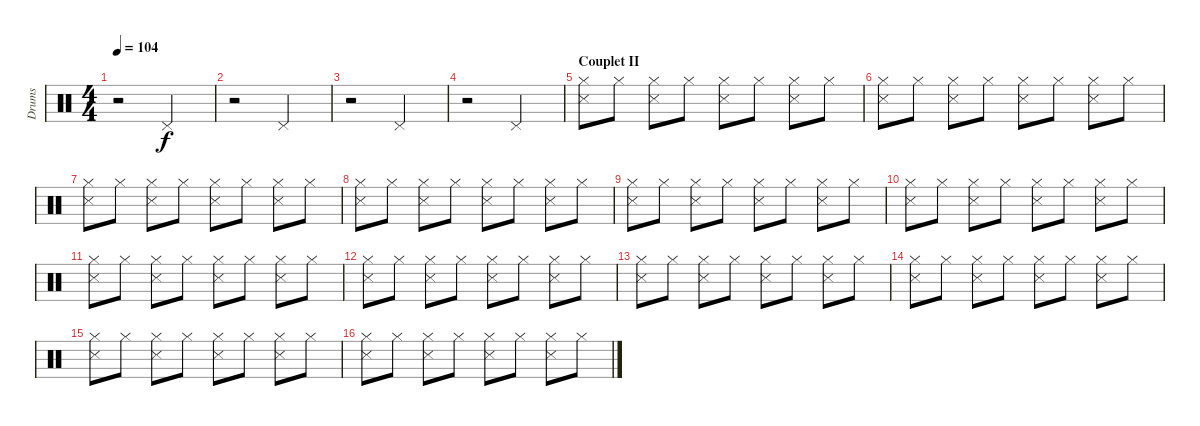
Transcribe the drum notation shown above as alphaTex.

\track ("Drums" "Drums") {instrument percussion}
\staff {score}
\articulation defaults
\ts (4 4)
\tempo 104
\clef neutral
\ks c
r.2{dy f} "Pedal Hi-Hat (hit)".2 |
r.2 "Pedal Hi-Hat (hit)".2 |
r.2 "Pedal Hi-Hat (hit)".2 |
r.2 "Pedal Hi-Hat (hit)".2 |
\section ("" "Couplet II")
("Hi-Hat (closed)" "Snare (side stick) 3").8 "Hi-Hat (closed)".8 ("Hi-Hat (closed)" "Snare (side stick) 3").8 "Hi-Hat (closed)".8 ("Hi-Hat (closed)" "Snare (side stick) 3").8 "Hi-Hat (closed)".8 ("Hi-Hat (closed)" "Snare (side stick) 3").8 "Hi-Hat (closed)".8 |
("Hi-Hat (closed)" "Snare (side stick) 3").8 "Hi-Hat (closed)".8 ("Hi-Hat (closed)" "Snare (side stick) 3").8 "Hi-Hat (closed)".8 ("Hi-Hat (closed)" "Snare (side stick) 3").8 "Hi-Hat (closed)".8 ("Hi-Hat (closed)" "Snare (side stick) 3").8 "Hi-Hat (closed)".8 |
("Hi-Hat (closed)" "Snare (side stick) 3").8 "Hi-Hat (closed)".8 ("Hi-Hat (closed)" "Snare (side stick) 3").8 "Hi-Hat (closed)".8 ("Hi-Hat (closed)" "Snare (side stick) 3").8 "Hi-Hat (closed)".8 ("Hi-Hat (closed)" "Snare (side stick) 3").8 "Hi-Hat (closed)".8 |
("Hi-Hat (closed)" "Snare (side stick) 3").8 "Hi-Hat (closed)".8 ("Hi-Hat (closed)" "Snare (side stick) 3").8 "Hi-Hat (closed)".8 ("Hi-Hat (closed)" "Snare (side stick) 3").8 "Hi-Hat (closed)".8 ("Hi-Hat (closed)" "Snare (side stick) 3").8 "Hi-Hat (closed)".8 |
("Hi-Hat (closed)" "Snare (side stick) 3").8 "Hi-Hat (closed)".8 ("Hi-Hat (closed)" "Snare (side stick) 3").8 "Hi-Hat (closed)".8 ("Hi-Hat (closed)" "Snare (side stick) 3").8 "Hi-Hat (closed)".8 ("Hi-Hat (closed)" "Snare (side stick) 3").8 "Hi-Hat (closed)".8 |
("Hi-Hat (closed)" "Snare (side stick) 3").8 "Hi-Hat (closed)".8 ("Hi-Hat (closed)" "Snare (side stick) 3").8 "Hi-Hat (closed)".8 ("Hi-Hat (closed)" "Snare (side stick) 3").8 "Hi-Hat (closed)".8 ("Hi-Hat (closed)" "Snare (side stick) 3").8 "Hi-Hat (closed)".8 |
("Hi-Hat (closed)" "Snare (side stick) 3").8 "Hi-Hat (closed)".8 ("Hi-Hat (closed)" "Snare (side stick) 3").8 "Hi-Hat (closed)".8 ("Hi-Hat (closed)" "Snare (side stick) 3").8 "Hi-Hat (closed)".8 ("Hi-Hat (closed)" "Snare (side stick) 3").8 "Hi-Hat (closed)".8 |
("Hi-Hat (closed)" "Snare (side stick) 3").8 "Hi-Hat (closed)".8 ("Hi-Hat (closed)" "Snare (side stick) 3").8 "Hi-Hat (closed)".8 ("Hi-Hat (closed)" "Snare (side stick) 3").8 "Hi-Hat (closed)".8 ("Hi-Hat (closed)" "Snare (side stick) 3").8 "Hi-Hat (closed)".8 |
("Hi-Hat (closed)" "Snare (side stick) 3").8 "Hi-Hat (closed)".8 ("Hi-Hat (closed)" "Snare (side stick) 3").8 "Hi-Hat (closed)".8 ("Hi-Hat (closed)" "Snare (side stick) 3").8 "Hi-Hat (closed)".8 ("Hi-Hat (closed)" "Snare (side stick) 3").8 "Hi-Hat (closed)".8 |
("Hi-Hat (closed)" "Snare (side stick) 3").8 "Hi-Hat (closed)".8 ("Hi-Hat (closed)" "Snare (side stick) 3").8 "Hi-Hat (closed)".8 ("Hi-Hat (closed)" "Snare (side stick) 3").8 "Hi-Hat (closed)".8 ("Hi-Hat (closed)" "Snare (side stick) 3").8 "Hi-Hat (closed)".8 |
("Hi-Hat (closed)" "Snare (side stick) 3").8 "Hi-Hat (closed)".8 ("Hi-Hat (closed)" "Snare (side stick) 3").8 "Hi-Hat (closed)".8 ("Hi-Hat (closed)" "Snare (side stick) 3").8 "Hi-Hat (closed)".8 ("Hi-Hat (closed)" "Snare (side stick) 3").8 "Hi-Hat (closed)".8 |
("Hi-Hat (closed)" "Snare (side stick) 3").8 "Hi-Hat (closed)".8 ("Hi-Hat (closed)" "Snare (side stick) 3").8 "Hi-Hat (closed)".8 ("Hi-Hat (closed)" "Snare (side stick) 3").8 "Hi-Hat (closed)".8 ("Hi-Hat (closed)" "Snare (side stick) 3").8 "Hi-Hat (closed)".8
